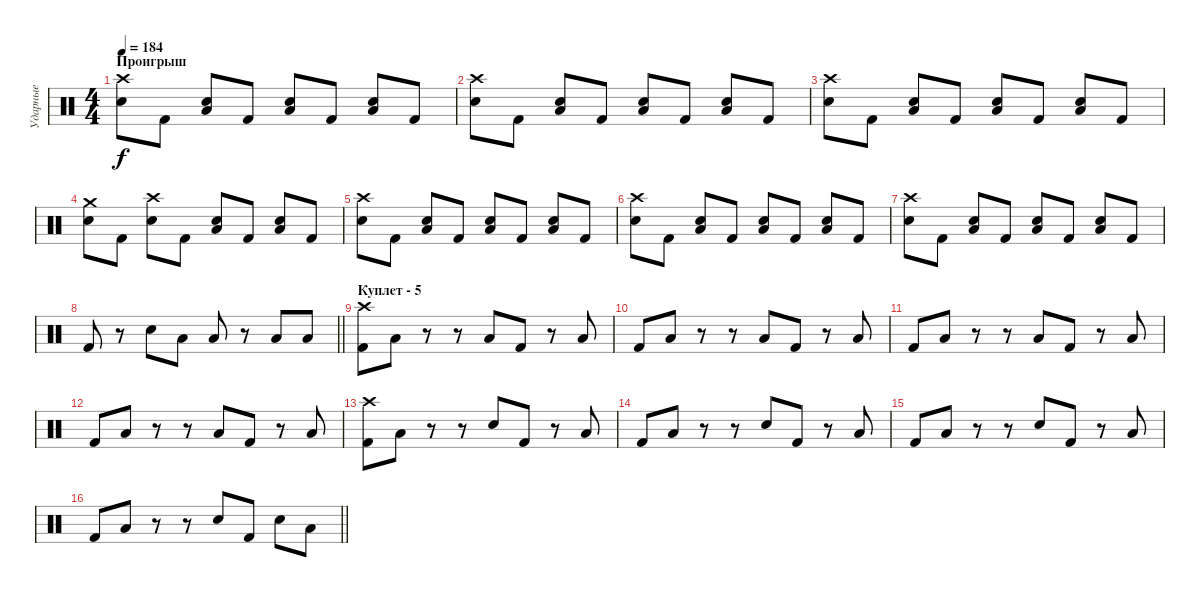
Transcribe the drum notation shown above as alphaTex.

\track ("Ударные" "Ударные") {instrument percussion}
\staff {score}
\articulation defaults
\ts (4 4)
\section ("" "Проигрыш")
\tempo 184
\clef neutral
\ks c
("Crash high (hit)" "Snare (hit) 2").8{dy f} "Kick (hit) 2".8 ("Low Floor Tom (hit)" "Snare (hit) 2").8 "Kick (hit) 2".8 ("Low Floor Tom (hit)" "Snare (hit) 2").8 "Kick (hit) 2".8 ("Low Floor Tom (hit)" "Snare (hit) 2").8 "Kick (hit) 2".8 |
("Crash high (hit)" "Snare (hit) 2").8 "Kick (hit) 2".8 ("Low Floor Tom (hit)" "Snare (hit) 2").8 "Kick (hit) 2".8 ("Low Floor Tom (hit)" "Snare (hit) 2").8 "Kick (hit) 2".8 ("Low Floor Tom (hit)" "Snare (hit) 2").8 "Kick (hit) 2".8 |
("Crash high (hit)" "Snare (hit) 2").8 "Kick (hit) 2".8 ("Low Floor Tom (hit)" "Snare (hit) 2").8 "Kick (hit) 2".8 ("Low Floor Tom (hit)" "Snare (hit) 2").8 "Kick (hit) 2".8 ("Low Floor Tom (hit)" "Snare (hit) 2").8 "Kick (hit) 2".8 |
("Crash medium (hit)" "Snare (hit) 2").8 "Kick (hit) 2".8 ("Crash high (hit)" "Snare (hit) 2").8 "Kick (hit) 2".8 ("Low Floor Tom (hit)" "Snare (hit) 2").8 "Kick (hit) 2".8 ("Low Tom (hit)" "Snare (hit) 2").8 "Kick (hit) 2".8 |
("Crash high (hit)" "Snare (hit) 2").8 "Kick (hit) 2".8 ("Low Floor Tom (hit)" "Snare (hit) 2").8 "Kick (hit) 2".8 ("Low Floor Tom (hit)" "Snare (hit) 2").8 "Kick (hit) 2".8 ("Low Floor Tom (hit)" "Snare (hit) 2").8 "Kick (hit) 2".8 |
("Crash high (hit)" "Snare (hit) 2").8 "Kick (hit) 2".8 ("Low Floor Tom (hit)" "Snare (hit) 2").8 "Kick (hit) 2".8 ("Low Floor Tom (hit)" "Snare (hit) 2").8 "Kick (hit) 2".8 ("Low Floor Tom (hit)" "Snare (hit) 2").8 "Kick (hit) 2".8 |
("Crash high (hit)" "Snare (hit) 2").8 "Kick (hit) 2".8 ("Low Floor Tom (hit)" "Snare (hit) 2").8 "Kick (hit) 2".8 ("Low Floor Tom (hit)" "Snare (hit) 2").8 "Kick (hit) 2".8 ("Low Floor Tom (hit)" "Snare (hit) 2").8 "Kick (hit) 2".8 |
\barLineRight lightlight "Kick (hit) 2".8
r.8 "Snare (hit) 2".8 "Low Floor Tom (hit)".8 "Low Tom (hit)".8 r.8 "Low Floor Tom (hit)".8 "Low Tom (hit)".8 |
\section ("" "Куплет - 5")
("Crash high (hit)" "Kick (hit) 2").8 "Low Tom (hit)".8 r.8 r.8 "Low Tom (hit)".8 "Kick (hit) 2".8 r.8 "Low Tom (hit)".8 |
"Kick (hit) 2".8 "Low Tom (hit)".8 r.8 r.8 "Low Tom (hit)".8 "Kick (hit) 2".8 r.8 "Low Tom (hit)".8 |
"Kick (hit) 2".8 "Low Tom (hit)".8 r.8 r.8 "Low Tom (hit)".8 "Kick (hit) 2".8 r.8 "Low Tom (hit)".8 |
"Kick (hit) 2".8 "Low Tom (hit)".8 r.8 r.8 "Low Tom (hit)".8 "Kick (hit) 2".8 r.8 "Low Tom (hit)".8 |
("Crash high (hit)" "Kick (hit) 2").8 "Low Tom (hit)".8 r.8 r.8 "Snare (hit) 2".8 "Kick (hit) 2".8 r.8 "Low Tom (hit)".8 |
"Kick (hit) 2".8 "Low Tom (hit)".8 r.8 r.8 "Snare (hit) 2".8 "Kick (hit) 2".8 r.8 "Low Tom (hit)".8 |
"Kick (hit) 2".8 "Low Tom (hit)".8 r.8 r.8 "Snare (hit) 2".8 "Kick (hit) 2".8 r.8 "Low Tom (hit)".8 |
\barLineRight lightlight "Kick (hit) 2".8 "Low Tom (hit)".8
r.8 r.8 "Snare (hit) 2".8 "Kick (hit) 2".8 "Snare (hit) 2".8 "Low Tom (hit)".8
